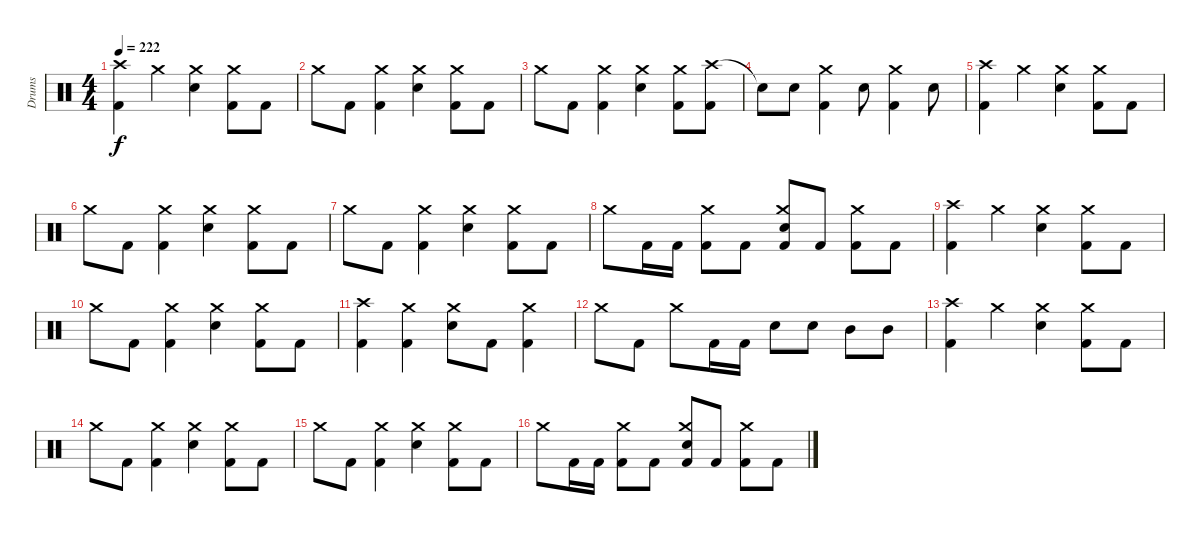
\track ("Drums" "Drums") {instrument percussion}
\staff {score}
\articulation defaults
\ts (4 4)
\tempo 222
\clef neutral
\ks c
("Crash high (hit)" "Kick (hit) 2").4{dy f} "Crash medium (hit)".4 ("Crash medium (hit)" "Electric Snare (hit)").4 ("Crash medium (hit)" "Kick (hit) 2").8 "Kick (hit) 2".8 |
"Crash medium (hit)".8 "Kick (hit) 2".8 ("Crash medium (hit)" "Kick (hit) 2").4 ("Crash medium (hit)" "Electric Snare (hit)").4 ("Crash medium (hit)" "Kick (hit) 2").8 "Kick (hit) 2".8 |
"Crash medium (hit)".8 "Kick (hit) 2".8 ("Crash medium (hit)" "Kick (hit) 2").4 ("Crash medium (hit)" "Electric Snare (hit)").4 ("Crash medium (hit)" "Kick (hit) 2").8 ("Crash high (hit)" "Kick (hit) 2").8 |
"Snare (hit)"{t}.8 "Electric Snare (hit)".8 ("Crash medium (hit)" "Kick (hit) 2").4 "Electric Snare (hit)".8 ("Crash medium (hit)" "Kick (hit) 2").4 "Electric Snare (hit)".8 |
("Crash high (hit)" "Kick (hit) 2").4 "Crash medium (hit)".4 ("Crash medium (hit)" "Electric Snare (hit)").4 ("Crash medium (hit)" "Kick (hit) 2").8 "Kick (hit) 2".8 |
"Crash medium (hit)".8 "Kick (hit) 2".8 ("Crash medium (hit)" "Kick (hit) 2").4 ("Crash medium (hit)" "Electric Snare (hit)").4 ("Crash medium (hit)" "Kick (hit) 2").8 "Kick (hit) 2".8 |
"Crash medium (hit)".8 "Kick (hit) 2".8 ("Crash medium (hit)" "Kick (hit) 2").4 ("Crash medium (hit)" "Electric Snare (hit)").4 ("Crash medium (hit)" "Kick (hit) 2").8 "Kick (hit) 2".8 |
"Crash medium (hit)".8 "Kick (hit) 2".16 "Kick (hit) 2".16 ("Crash medium (hit)" "Kick (hit) 2").8 "Kick (hit) 2".8 ("Crash medium (hit)" "Electric Snare (hit)" "Kick (hit) 2").8 "Kick (hit) 2".8 ("Crash medium (hit)" "Kick (hit) 2").8 "Kick (hit) 2".8 |
("Crash high (hit)" "Kick (hit) 2").4 "Crash medium (hit)".4 ("Crash medium (hit)" "Electric Snare (hit)").4 ("Crash medium (hit)" "Kick (hit) 2").8 "Kick (hit) 2".8 |
"Crash medium (hit)".8 "Kick (hit) 2".8 ("Crash medium (hit)" "Kick (hit) 2").4 ("Crash medium (hit)" "Electric Snare (hit)").4 ("Crash medium (hit)" "Kick (hit) 2").8 "Kick (hit) 2".8 |
("Crash high (hit)" "Kick (hit) 2").4 ("Crash medium (hit)" "Kick (hit) 2").4 ("Crash medium (hit)" "Electric Snare (hit)").8 "Kick (hit) 2".8 ("Crash medium (hit)" "Kick (hit) 2").4 |
"Crash medium (hit)".8 "Kick (hit) 2".8 "Crash medium (hit)".8 "Kick (hit) 2".16 "Kick (hit) 2".16 "Electric Snare (hit)".8 "Electric Snare (hit)".8 "Mid Tom (hit)".8 "Mid Tom (hit)".8 |
("Crash high (hit)" "Kick (hit) 2").4 "Crash medium (hit)".4 ("Crash medium (hit)" "Electric Snare (hit)").4 ("Crash medium (hit)" "Kick (hit) 2").8 "Kick (hit) 2".8 |
"Crash medium (hit)".8 "Kick (hit) 2".8 ("Crash medium (hit)" "Kick (hit) 2").4 ("Crash medium (hit)" "Electric Snare (hit)").4 ("Crash medium (hit)" "Kick (hit) 2").8 "Kick (hit) 2".8 |
"Crash medium (hit)".8 "Kick (hit) 2".8 ("Crash medium (hit)" "Kick (hit) 2").4 ("Crash medium (hit)" "Electric Snare (hit)").4 ("Crash medium (hit)" "Kick (hit) 2").8 "Kick (hit) 2".8 |
"Crash medium (hit)".8 "Kick (hit) 2".16 "Kick (hit) 2".16 ("Crash medium (hit)" "Kick (hit) 2").8 "Kick (hit) 2".8 ("Crash medium (hit)" "Electric Snare (hit)" "Kick (hit) 2").8 "Kick (hit) 2".8 ("Crash medium (hit)" "Kick (hit) 2").8 "Kick (hit) 2".8
